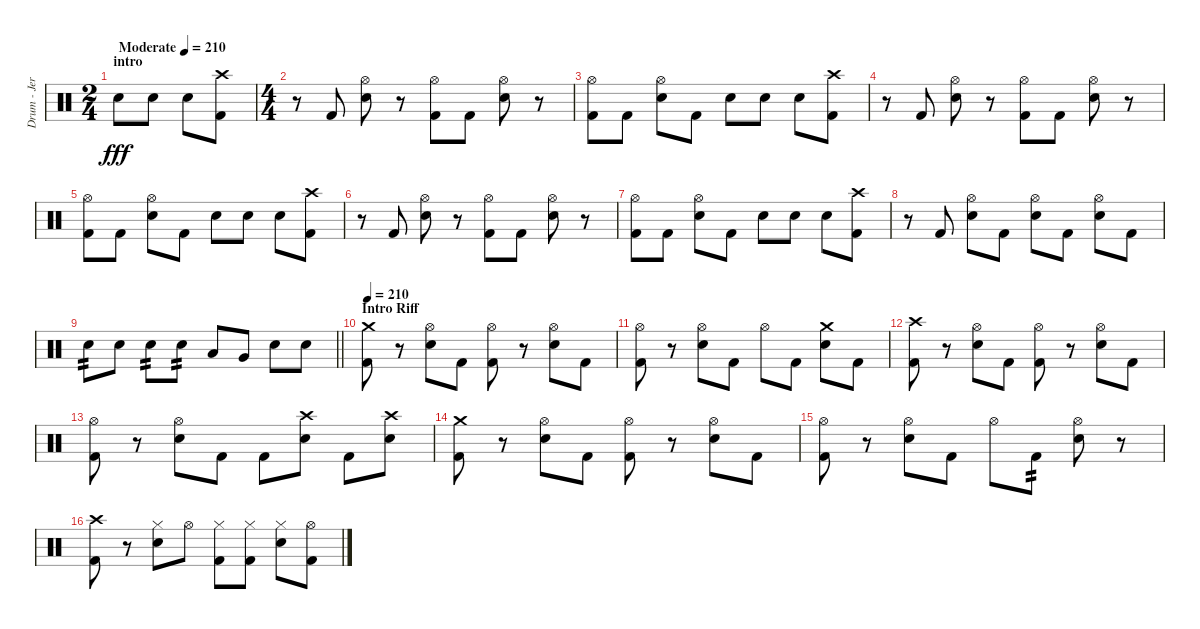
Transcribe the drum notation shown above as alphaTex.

\track ("Drum - Jerinx" "Drum - Jer") {instrument percussion}
\staff {score}
\articulation defaults
\ts (2 4)
\section ("" "intro")
\tempo (210 "Moderate")
\clef neutral
\ks c "Snare (hit) 2".8{dy fff} "Snare (hit) 2".8 "Snare (hit) 2".8
("Kick (hit) 2" "Crash high (hit)").8 |
\ts (4 4)
r.8 "Kick (hit) 2".8 ("Hi-Hat (open)" "Snare (hit) 2").8 r.8 ("Hi-Hat (open)" "Kick (hit) 2").8 "Kick (hit) 2".8 ("Hi-Hat (open)" "Snare (hit) 2").8 r.8 |
("Hi-Hat (open)" "Kick (hit) 2").8 "Kick (hit) 2".8 ("Hi-Hat (open)" "Snare (hit) 2").8 "Kick (hit) 2".8 "Snare (hit) 2".8 "Snare (hit) 2".8 "Snare (hit) 2".8 ("Kick (hit) 2" "Crash high (hit)").8 |
r.8 "Kick (hit) 2".8 ("Hi-Hat (open)" "Snare (hit) 2").8 r.8 ("Hi-Hat (open)" "Kick (hit) 2").8 "Kick (hit) 2".8 ("Hi-Hat (open)" "Snare (hit) 2").8 r.8 |
("Hi-Hat (open)" "Kick (hit) 2").8 "Kick (hit) 2".8 ("Hi-Hat (open)" "Snare (hit) 2").8 "Kick (hit) 2".8 "Snare (hit) 2".8 "Snare (hit) 2".8 "Snare (hit) 2".8 ("Kick (hit) 2" "Crash high (hit)").8 |
r.8 "Kick (hit) 2".8 ("Hi-Hat (open)" "Snare (hit) 2").8 r.8 ("Hi-Hat (open)" "Kick (hit) 2").8 "Kick (hit) 2".8 ("Hi-Hat (open)" "Snare (hit) 2").8 r.8 |
("Hi-Hat (open)" "Kick (hit) 2").8 "Kick (hit) 2".8 ("Hi-Hat (open)" "Snare (hit) 2").8 "Kick (hit) 2".8 "Snare (hit) 2".8 "Snare (hit) 2".8 "Snare (hit) 2".8 ("Kick (hit) 2" "Crash high (hit)").8 |
r.8 "Kick (hit) 2".8 ("Hi-Hat (open)" "Snare (hit) 2").8 "Kick (hit) 2".8 ("Hi-Hat (open)" "Snare (hit) 2").8 "Kick (hit) 2".8 ("Hi-Hat (open)" "Snare (hit) 2").8 "Kick (hit) 2".8 |
\barLineRight lightlight "Snare (hit) 2".8{tp 2} "Snare (hit) 2".8 "Snare (hit) 2".8{tp 2} "Snare (hit) 2".8{tp 2} "Low Tom (hit)".8 "Very Low Tom (hit)".8 "Snare (hit) 2".8 "Snare (hit) 2".8
|
\section ("" "Intro Riff")
\tempo 210
("Kick (hit) 2" "Crash medium (hit)").8 r.8 ("Hi-Hat (open)" "Snare (hit) 2").8 "Kick (hit) 2".8 ("Hi-Hat (open)" "Kick (hit) 2").8 r.8 ("Hi-Hat (open)" "Snare (hit) 2").8 "Kick (hit) 2".8 |
("Hi-Hat (open)" "Kick (hit) 2").8 r.8 ("Hi-Hat (open)" "Snare (hit) 2").8 "Kick (hit) 2".8 "Hi-Hat (open)".8 "Kick (hit) 2".8 ("Snare (hit) 2" "Crash medium (hit)").8 "Kick (hit) 2".8 |
("Kick (hit) 2" "Crash high (hit)").8 r.8 ("Hi-Hat (open)" "Snare (hit) 2").8 "Kick (hit) 2".8 ("Hi-Hat (open)" "Kick (hit) 2").8 r.8 ("Hi-Hat (open)" "Snare (hit) 2").8 "Kick (hit) 2".8 |
("Hi-Hat (open)" "Kick (hit) 2").8 r.8 ("Hi-Hat (open)" "Snare (hit) 2").8 "Kick (hit) 2".8 "Kick (hit) 2".8 ("Snare (hit) 2" "Crash high (hit)").8 "Kick (hit) 2".8 ("Snare (hit) 2" "Crash high (hit)").8 |
("Kick (hit) 2" "Crash medium (hit)").8 r.8 ("Hi-Hat (open)" "Snare (hit) 2").8 "Kick (hit) 2".8 ("Hi-Hat (open)" "Kick (hit) 2").8 r.8 ("Hi-Hat (open)" "Snare (hit) 2").8 "Kick (hit) 2".8 |
("Hi-Hat (open)" "Kick (hit) 2").8 r.8 ("Hi-Hat (open)" "Snare (hit) 2").8 "Kick (hit) 2".8 "Hi-Hat (open)".8 "Kick (hit) 2".8{tp 2} ("Hi-Hat (open)" "Snare (hit) 2").8 r.8 |
("Kick (hit) 2" "Crash high (hit)").8 r.8 ("Hi-Hat (closed)" "Snare (hit) 2").8 "Hi-Hat (open)".8 ("Hi-Hat (closed)" "Kick (hit) 2").8 ("Hi-Hat (closed)" "Kick (hit) 2").8 ("Hi-Hat (closed)" "Snare (hit) 2").8 ("Hi-Hat (open)" "Kick (hit) 2").8
